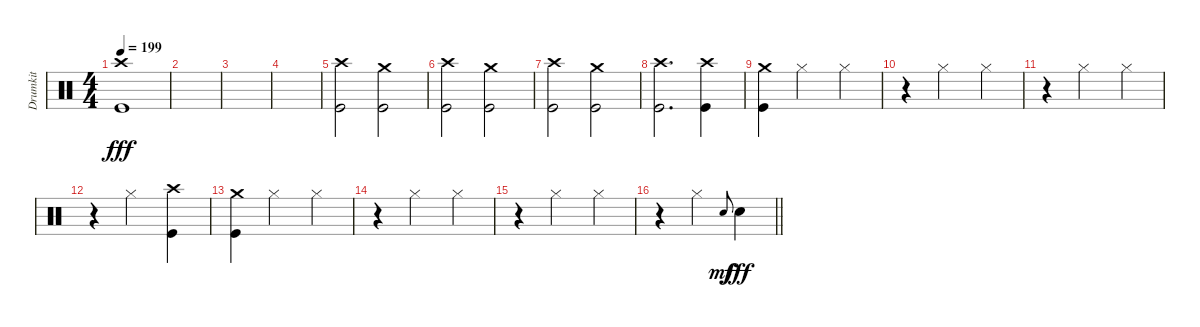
\track ("Drumkit" "Drumkit") {instrument percussion}
\staff
\articulation defaults
\ts (4 4)
\tempo 199
\clef neutral
\ks c
("Kick (hit)" "Crash high (hit)").1{dy fff} |
|
|
|
("Kick (hit)" "Crash high (hit)").2 ("Kick (hit)" "Crash medium (hit)").2 |
("Kick (hit)" "Crash high (hit)").2 ("Kick (hit)" "Crash medium (hit)").2 |
("Kick (hit)" "Crash high (hit)").2 ("Kick (hit)" "Crash medium (hit)").2 |
("Kick (hit)" "Crash high (hit)").2{d} ("Kick (hit)" "Crash high (hit)").4 |
("Kick (hit)" "Crash medium (hit)").4 "Hi-Hat (closed)".2 "Hi-Hat (closed)".4 |
r.4 "Hi-Hat (closed)".2 "Hi-Hat (closed)".4 |
r.4 "Hi-Hat (closed)".2 "Hi-Hat (closed)".4 |
r.4 "Hi-Hat (closed)".2 ("Kick (hit)" "Crash high (hit)").4 |
("Kick (hit)" "Crash medium (hit)").4 "Hi-Hat (closed)".2 "Hi-Hat (closed)".4 |
r.4 "Hi-Hat (closed)".2 "Hi-Hat (closed)".4 |
r.4 "Hi-Hat (closed)".2 "Hi-Hat (closed)".4 |
\barLineRight lightlight
r.4 "Hi-Hat (closed)".2 "Snare (hit)".8{gr onbeat dy mf} "Snare (hit) 2".4{dy fff}
